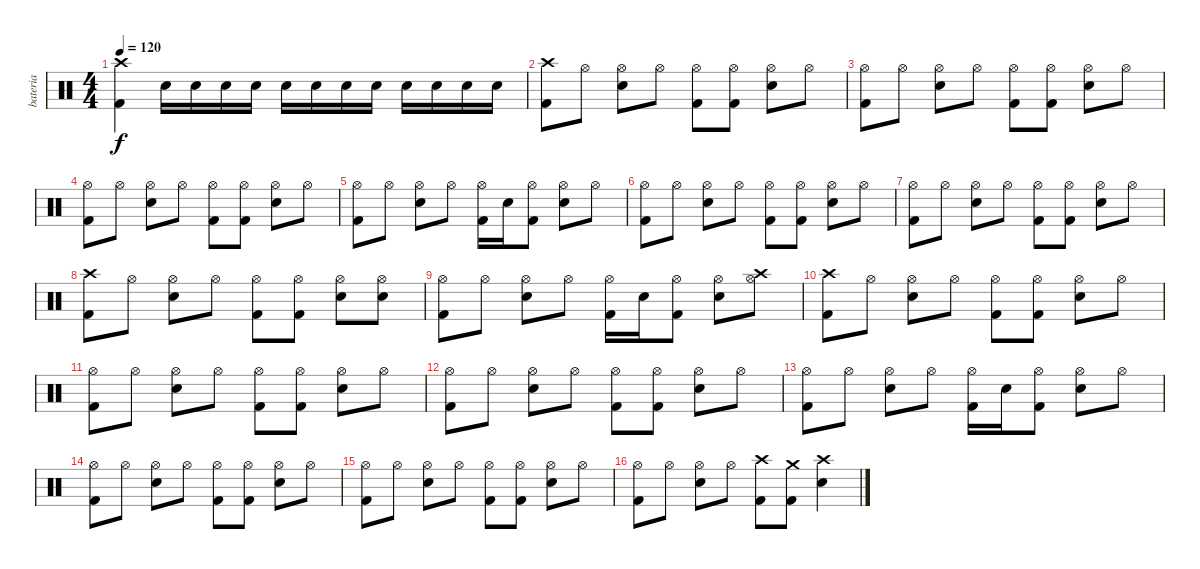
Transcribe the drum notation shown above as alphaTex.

\track ("bateria" "bateria") {instrument percussion}
\staff {score}
\articulation defaults
\ts (4 4)
\tempo 120
\clef neutral
\ks c
("Crash high (hit)" "Kick (hit) 2").4{dy f} "Electric Snare (hit)".16 "Electric Snare (hit)".16 "Electric Snare (hit)".16 "Electric Snare (hit)".16 "Electric Snare (hit)".16 "Electric Snare (hit)".16 "Electric Snare (hit)".16 "Electric Snare (hit)".16 "Electric Snare (hit)".16 "Electric Snare (hit)".16 "Electric Snare (hit)".16 "Electric Snare (hit)".16 |
("Crash high (hit)" "Kick (hit) 2").8 "Hi-Hat (open)".8 ("Electric Snare (hit)" "Hi-Hat (open)").8 "Hi-Hat (open)".8 ("Kick (hit) 2" "Hi-Hat (open)").8 ("Kick (hit) 2" "Hi-Hat (open)").8 ("Electric Snare (hit)" "Hi-Hat (open)").8 "Hi-Hat (open)".8 |
("Kick (hit) 2" "Hi-Hat (open)").8 "Hi-Hat (open)".8 ("Electric Snare (hit)" "Hi-Hat (open)").8 "Hi-Hat (open)".8 ("Kick (hit) 2" "Hi-Hat (open)").8 ("Kick (hit) 2" "Hi-Hat (open)").8 ("Electric Snare (hit)" "Hi-Hat (open)").8 "Hi-Hat (open)".8 |
("Kick (hit) 2" "Hi-Hat (open)").8 "Hi-Hat (open)".8 ("Electric Snare (hit)" "Hi-Hat (open)").8 "Hi-Hat (open)".8 ("Kick (hit) 2" "Hi-Hat (open)").8 ("Kick (hit) 2" "Hi-Hat (open)").8 ("Electric Snare (hit)" "Hi-Hat (open)").8 "Hi-Hat (open)".8 |
("Kick (hit) 2" "Hi-Hat (open)").8 "Hi-Hat (open)".8 ("Electric Snare (hit)" "Hi-Hat (open)").8 "Hi-Hat (open)".8 ("Kick (hit) 2" "Hi-Hat (open)").16 "Electric Snare (hit)".16 ("Kick (hit) 2" "Hi-Hat (open)").8 ("Electric Snare (hit)" "Hi-Hat (open)").8 "Hi-Hat (open)".8 |
("Kick (hit) 2" "Hi-Hat (open)").8 "Hi-Hat (open)".8 ("Electric Snare (hit)" "Hi-Hat (open)").8 "Hi-Hat (open)".8 ("Kick (hit) 2" "Hi-Hat (open)").8 ("Kick (hit) 2" "Hi-Hat (open)").8 ("Electric Snare (hit)" "Hi-Hat (open)").8 "Hi-Hat (open)".8 |
("Kick (hit) 2" "Hi-Hat (open)").8 "Hi-Hat (open)".8 ("Electric Snare (hit)" "Hi-Hat (open)").8 "Hi-Hat (open)".8 ("Kick (hit) 2" "Hi-Hat (open)").8 ("Kick (hit) 2" "Hi-Hat (open)").8 ("Electric Snare (hit)" "Hi-Hat (open)").8 "Hi-Hat (open)".8 |
("Crash high (hit)" "Kick (hit) 2").8 "Hi-Hat (open)".8 ("Electric Snare (hit)" "Hi-Hat (open)").8 "Hi-Hat (open)".8 ("Kick (hit) 2" "Hi-Hat (open)").8 ("Kick (hit) 2" "Hi-Hat (open)").8 ("Electric Snare (hit)" "Hi-Hat (open)").8 ("Electric Snare (hit)" "Hi-Hat (open)").8 |
("Kick (hit) 2" "Hi-Hat (open)").8 "Hi-Hat (open)".8 ("Electric Snare (hit)" "Hi-Hat (open)").8 "Hi-Hat (open)".8 ("Kick (hit) 2" "Hi-Hat (open)").16 "Electric Snare (hit)".16 ("Kick (hit) 2" "Hi-Hat (open)").8 ("Electric Snare (hit)" "Hi-Hat (open)").8 ("Crash high (hit)" "Hi-Hat (open)").8 |
("Crash high (hit)" "Kick (hit) 2").8 "Hi-Hat (open)".8 ("Electric Snare (hit)" "Hi-Hat (open)").8 "Hi-Hat (open)".8 ("Kick (hit) 2" "Hi-Hat (open)").8 ("Kick (hit) 2" "Hi-Hat (open)").8 ("Electric Snare (hit)" "Hi-Hat (open)").8 "Hi-Hat (open)".8 |
("Kick (hit) 2" "Hi-Hat (open)").8 "Hi-Hat (open)".8 ("Electric Snare (hit)" "Hi-Hat (open)").8 "Hi-Hat (open)".8 ("Kick (hit) 2" "Hi-Hat (open)").8 ("Kick (hit) 2" "Hi-Hat (open)").8 ("Electric Snare (hit)" "Hi-Hat (open)").8 "Hi-Hat (open)".8 |
("Kick (hit) 2" "Hi-Hat (open)").8 "Hi-Hat (open)".8 ("Electric Snare (hit)" "Hi-Hat (open)").8 "Hi-Hat (open)".8 ("Kick (hit) 2" "Hi-Hat (open)").8 ("Kick (hit) 2" "Hi-Hat (open)").8 ("Electric Snare (hit)" "Hi-Hat (open)").8 "Hi-Hat (open)".8 |
("Kick (hit) 2" "Hi-Hat (open)").8 "Hi-Hat (open)".8 ("Electric Snare (hit)" "Hi-Hat (open)").8 "Hi-Hat (open)".8 ("Kick (hit) 2" "Hi-Hat (open)").16 "Electric Snare (hit)".16 ("Kick (hit) 2" "Hi-Hat (open)").8 ("Electric Snare (hit)" "Hi-Hat (open)").8 "Hi-Hat (open)".8 |
("Kick (hit) 2" "Hi-Hat (open)").8 "Hi-Hat (open)".8 ("Electric Snare (hit)" "Hi-Hat (open)").8 "Hi-Hat (open)".8 ("Kick (hit) 2" "Hi-Hat (open)").8 ("Kick (hit) 2" "Hi-Hat (open)").8 ("Electric Snare (hit)" "Hi-Hat (open)").8 "Hi-Hat (open)".8 |
("Kick (hit) 2" "Hi-Hat (open)").8 "Hi-Hat (open)".8 ("Electric Snare (hit)" "Hi-Hat (open)").8 "Hi-Hat (open)".8 ("Kick (hit) 2" "Hi-Hat (open)").8 ("Kick (hit) 2" "Hi-Hat (open)").8 ("Electric Snare (hit)" "Hi-Hat (open)").8 "Hi-Hat (open)".8 |
("Kick (hit) 2" "Hi-Hat (open)").8 "Hi-Hat (open)".8 ("Electric Snare (hit)" "Hi-Hat (open)").8 "Hi-Hat (open)".8 ("Crash high (hit)" "Kick (hit) 2").8 ("Crash medium (hit)" "Kick (hit) 2").8 ("Crash high (hit)" "Electric Snare (hit)").4
